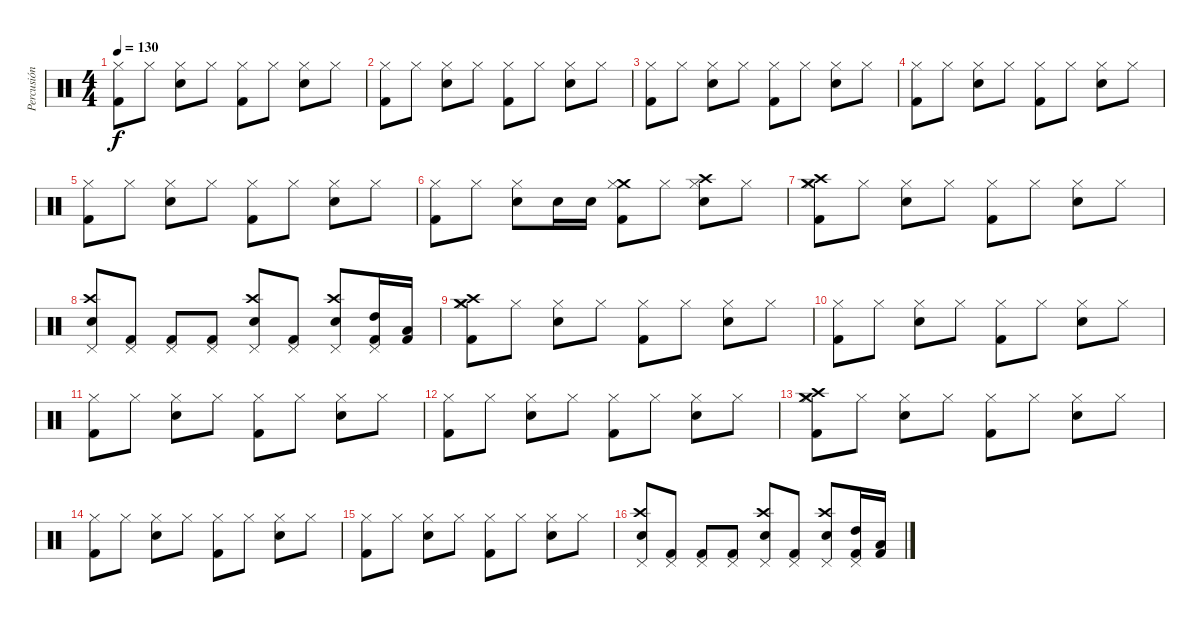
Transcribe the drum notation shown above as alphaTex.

\track ("Percusión" "Percusión") {instrument percussion}
\staff {score}
\articulation defaults
\ts (4 4)
\tempo 130
\clef neutral
\ks c
("Hi-Hat (closed)" "Kick (hit) 2").8{dy f} "Hi-Hat (closed)".8 ("Hi-Hat (closed)" "Snare (hit) 2").8 "Hi-Hat (closed)".8 ("Hi-Hat (closed)" "Kick (hit) 2").8 "Hi-Hat (closed)".8 ("Hi-Hat (closed)" "Snare (hit) 2").8 "Hi-Hat (closed)".8 |
("Hi-Hat (closed)" "Kick (hit) 2").8 "Hi-Hat (closed)".8 ("Hi-Hat (closed)" "Snare (hit) 2").8 "Hi-Hat (closed)".8 ("Hi-Hat (closed)" "Kick (hit) 2").8 "Hi-Hat (closed)".8 ("Hi-Hat (closed)" "Snare (hit) 2").8 "Hi-Hat (closed)".8 |
("Hi-Hat (closed)" "Kick (hit) 2").8 "Hi-Hat (closed)".8 ("Hi-Hat (closed)" "Snare (hit) 2").8 "Hi-Hat (closed)".8 ("Hi-Hat (closed)" "Kick (hit) 2").8 "Hi-Hat (closed)".8 ("Hi-Hat (closed)" "Snare (hit) 2").8 "Hi-Hat (closed)".8 |
("Hi-Hat (closed)" "Kick (hit) 2").8 "Hi-Hat (closed)".8 ("Hi-Hat (closed)" "Snare (hit) 2").8 "Hi-Hat (closed)".8 ("Hi-Hat (closed)" "Kick (hit) 2").8 "Hi-Hat (closed)".8 ("Hi-Hat (closed)" "Snare (hit) 2").8 "Hi-Hat (closed)".8 |
("Hi-Hat (closed)" "Kick (hit) 2").8 "Hi-Hat (closed)".8 ("Hi-Hat (closed)" "Snare (hit) 2").8 "Hi-Hat (closed)".8 ("Hi-Hat (closed)" "Kick (hit) 2").8 "Hi-Hat (closed)".8 ("Hi-Hat (closed)" "Snare (hit) 2").8 "Hi-Hat (closed)".8 |
("Hi-Hat (closed)" "Kick (hit) 2").8 "Hi-Hat (closed)".8 ("Hi-Hat (closed)" "Snare (hit) 2").8 "Snare (hit) 2".16 "Snare (hit) 2".16 ("Crash medium (hit)" "Hi-Hat (closed)" "Kick (hit) 2").8 "Hi-Hat (closed)".8 ("Crash high (hit)" "Hi-Hat (closed)" "Snare (hit) 2").8 "Hi-Hat (closed)".8 |
("Crash high (hit)" "Crash medium (hit)" "Hi-Hat (closed)" "Kick (hit) 2").8 "Hi-Hat (closed)".8 ("Hi-Hat (closed)" "Snare (hit) 2").8 "Hi-Hat (closed)".8 ("Hi-Hat (closed)" "Kick (hit) 2").8 "Hi-Hat (closed)".8 ("Hi-Hat (closed)" "Snare (hit) 2").8 "Hi-Hat (closed)".8 |
("Crash high (hit)" "Pedal Hi-Hat (hit)" "Snare (hit) 2").8 ("Pedal Hi-Hat (hit)" "Kick (hit) 2").8 ("Pedal Hi-Hat (hit)" "Kick (hit) 2").8 ("Pedal Hi-Hat (hit)" "Kick (hit) 2").8 ("Crash high (hit)" "Pedal Hi-Hat (hit)" "Snare (hit) 2").8 ("Pedal Hi-Hat (hit)" "Kick (hit) 2").8 ("Crash high (hit)" "Pedal Hi-Hat (hit)" "Snare (hit) 2").8 ("Pedal Hi-Hat (hit)" "High Tom (hit)" "Kick (hit) 2").16 ("Low Tom (hit)" "Kick (hit) 2").16 |
("Crash medium (hit)" "Crash high (hit)" "Hi-Hat (closed)" "Kick (hit) 2").8 "Hi-Hat (closed)".8 ("Hi-Hat (closed)" "Snare (hit) 2").8 "Hi-Hat (closed)".8 ("Hi-Hat (closed)" "Kick (hit) 2").8 "Hi-Hat (closed)".8 ("Hi-Hat (closed)" "Snare (hit) 2").8 "Hi-Hat (closed)".8 |
("Hi-Hat (closed)" "Kick (hit) 2").8 "Hi-Hat (closed)".8 ("Hi-Hat (closed)" "Snare (hit) 2").8 "Hi-Hat (closed)".8 ("Hi-Hat (closed)" "Kick (hit) 2").8 "Hi-Hat (closed)".8 ("Hi-Hat (closed)" "Snare (hit) 2").8 "Hi-Hat (closed)".8 |
("Hi-Hat (closed)" "Kick (hit) 2").8 "Hi-Hat (closed)".8 ("Hi-Hat (closed)" "Snare (hit) 2").8 "Hi-Hat (closed)".8 ("Hi-Hat (closed)" "Kick (hit) 2").8 "Hi-Hat (closed)".8 ("Hi-Hat (closed)" "Snare (hit) 2").8 "Hi-Hat (closed)".8 |
("Hi-Hat (closed)" "Kick (hit) 2").8 "Hi-Hat (closed)".8 ("Hi-Hat (closed)" "Snare (hit) 2").8 "Hi-Hat (closed)".8 ("Hi-Hat (closed)" "Kick (hit) 2").8 "Hi-Hat (closed)".8 ("Hi-Hat (closed)" "Snare (hit) 2").8 "Hi-Hat (closed)".8 |
("Crash medium (hit)" "Crash high (hit)" "Hi-Hat (closed)" "Kick (hit) 2").8 "Hi-Hat (closed)".8 ("Hi-Hat (closed)" "Snare (hit) 2").8 "Hi-Hat (closed)".8 ("Hi-Hat (closed)" "Kick (hit) 2").8 "Hi-Hat (closed)".8 ("Hi-Hat (closed)" "Snare (hit) 2").8 "Hi-Hat (closed)".8 |
("Hi-Hat (closed)" "Kick (hit) 2").8 "Hi-Hat (closed)".8 ("Hi-Hat (closed)" "Snare (hit) 2").8 "Hi-Hat (closed)".8 ("Hi-Hat (closed)" "Kick (hit) 2").8 "Hi-Hat (closed)".8 ("Hi-Hat (closed)" "Snare (hit) 2").8 "Hi-Hat (closed)".8 |
("Hi-Hat (closed)" "Kick (hit) 2").8 "Hi-Hat (closed)".8 ("Hi-Hat (closed)" "Snare (hit) 2").8 "Hi-Hat (closed)".8 ("Hi-Hat (closed)" "Kick (hit) 2").8 "Hi-Hat (closed)".8 ("Hi-Hat (closed)" "Snare (hit) 2").8 "Hi-Hat (closed)".8 |
("Crash high (hit)" "Pedal Hi-Hat (hit)" "Snare (hit) 2").8 ("Pedal Hi-Hat (hit)" "Kick (hit) 2").8 ("Pedal Hi-Hat (hit)" "Kick (hit) 2").8 ("Pedal Hi-Hat (hit)" "Kick (hit) 2").8 ("Crash high (hit)" "Pedal Hi-Hat (hit)" "Snare (hit) 2").8 ("Pedal Hi-Hat (hit)" "Kick (hit) 2").8 ("Crash high (hit)" "Pedal Hi-Hat (hit)" "Snare (hit) 2").8 ("Pedal Hi-Hat (hit)" "High Tom (hit)" "Kick (hit) 2").16 ("Low Tom (hit)" "Kick (hit) 2").16
